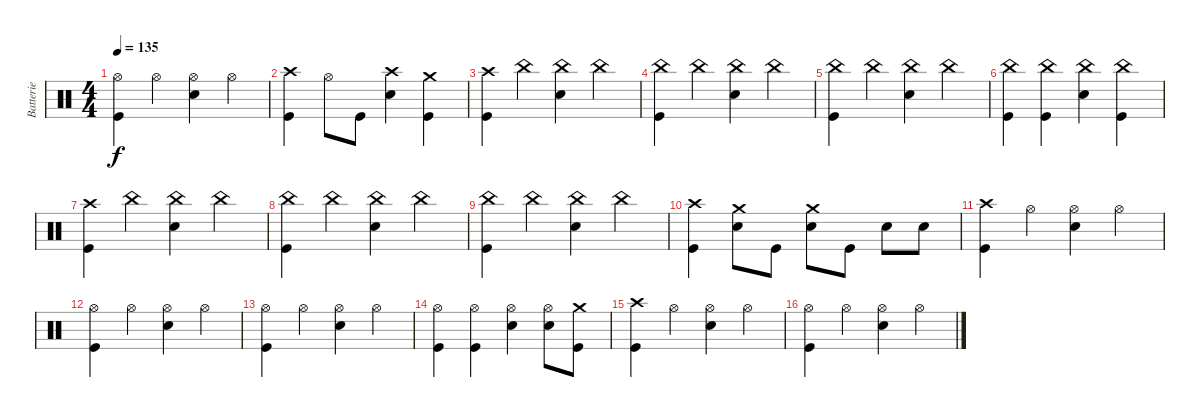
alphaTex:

\track ("Batterie" "Batterie") {instrument percussion}
\staff {score}
\articulation defaults
\ts (4 4)
\tempo 135
\clef neutral
\ks c
("Hi-Hat (open)" "Kick (hit)").4{dy f} "Hi-Hat (open)".4 ("Hi-Hat (open)" "Electric Snare (hit)").4 "Hi-Hat (open)".4 |
("Crash high (hit)" "Kick (hit)").4 "Hi-Hat (open)".8 "Kick (hit)".8 ("Crash high (hit)" "Electric Snare (hit)").4 ("Crash medium (hit)" "Kick (hit)").4 |
("Crash high (hit)" "Kick (hit)").4 "China (hit)".4 ("China (hit)" "Electric Snare (hit)").4 "China (hit)".4 |
("China (hit)" "Kick (hit)").4 "China (hit)".4 ("China (hit)" "Electric Snare (hit)").4 "China (hit)".4 |
("China (hit)" "Kick (hit)").4 "China (hit)".4 ("China (hit)" "Electric Snare (hit)").4 "China (hit)".4 |
("China (hit)" "Kick (hit)").4 ("China (hit)" "Kick (hit)").4 ("China (hit)" "Electric Snare (hit)").4 ("China (hit)" "Kick (hit)").4 |
("Crash high (hit)" "Kick (hit)").4 "China (hit)".4 ("China (hit)" "Electric Snare (hit)").4 "China (hit)".4 |
("China (hit)" "Kick (hit)").4 "China (hit)".4 ("China (hit)" "Electric Snare (hit)").4 "China (hit)".4 |
("China (hit)" "Kick (hit)").4 "China (hit)".4 ("China (hit)" "Electric Snare (hit)").4 "China (hit)".4 |
("Crash high (hit)" "Kick (hit)").4 ("Crash medium (hit)" "Electric Snare (hit)").8 "Kick (hit)".8 ("Crash medium (hit)" "Electric Snare (hit)").8 "Kick (hit)".8 "Electric Snare (hit)".8 "Electric Snare (hit)".8 |
("Crash high (hit)" "Kick (hit)").4 "Hi-Hat (open)".4 ("Hi-Hat (open)" "Electric Snare (hit)").4 "Hi-Hat (open)".4 |
("Hi-Hat (open)" "Kick (hit)").4 "Hi-Hat (open)".4 ("Hi-Hat (open)" "Electric Snare (hit)").4 "Hi-Hat (open)".4 |
("Hi-Hat (open)" "Kick (hit)").4 "Hi-Hat (open)".4 ("Hi-Hat (open)" "Electric Snare (hit)").4 "Hi-Hat (open)".4 |
("Hi-Hat (open)" "Kick (hit)").4 ("Hi-Hat (open)" "Kick (hit)").4 ("Hi-Hat (open)" "Electric Snare (hit)").4 ("Hi-Hat (open)" "Electric Snare (hit)").8 ("Crash medium (hit)" "Kick (hit)").8 |
("Crash high (hit)" "Kick (hit)").4 "Hi-Hat (open)".4 ("Hi-Hat (open)" "Electric Snare (hit)").4 "Hi-Hat (open)".4 |
("Hi-Hat (open)" "Kick (hit)").4 "Hi-Hat (open)".4 ("Hi-Hat (open)" "Electric Snare (hit)").4 "Hi-Hat (open)".4
